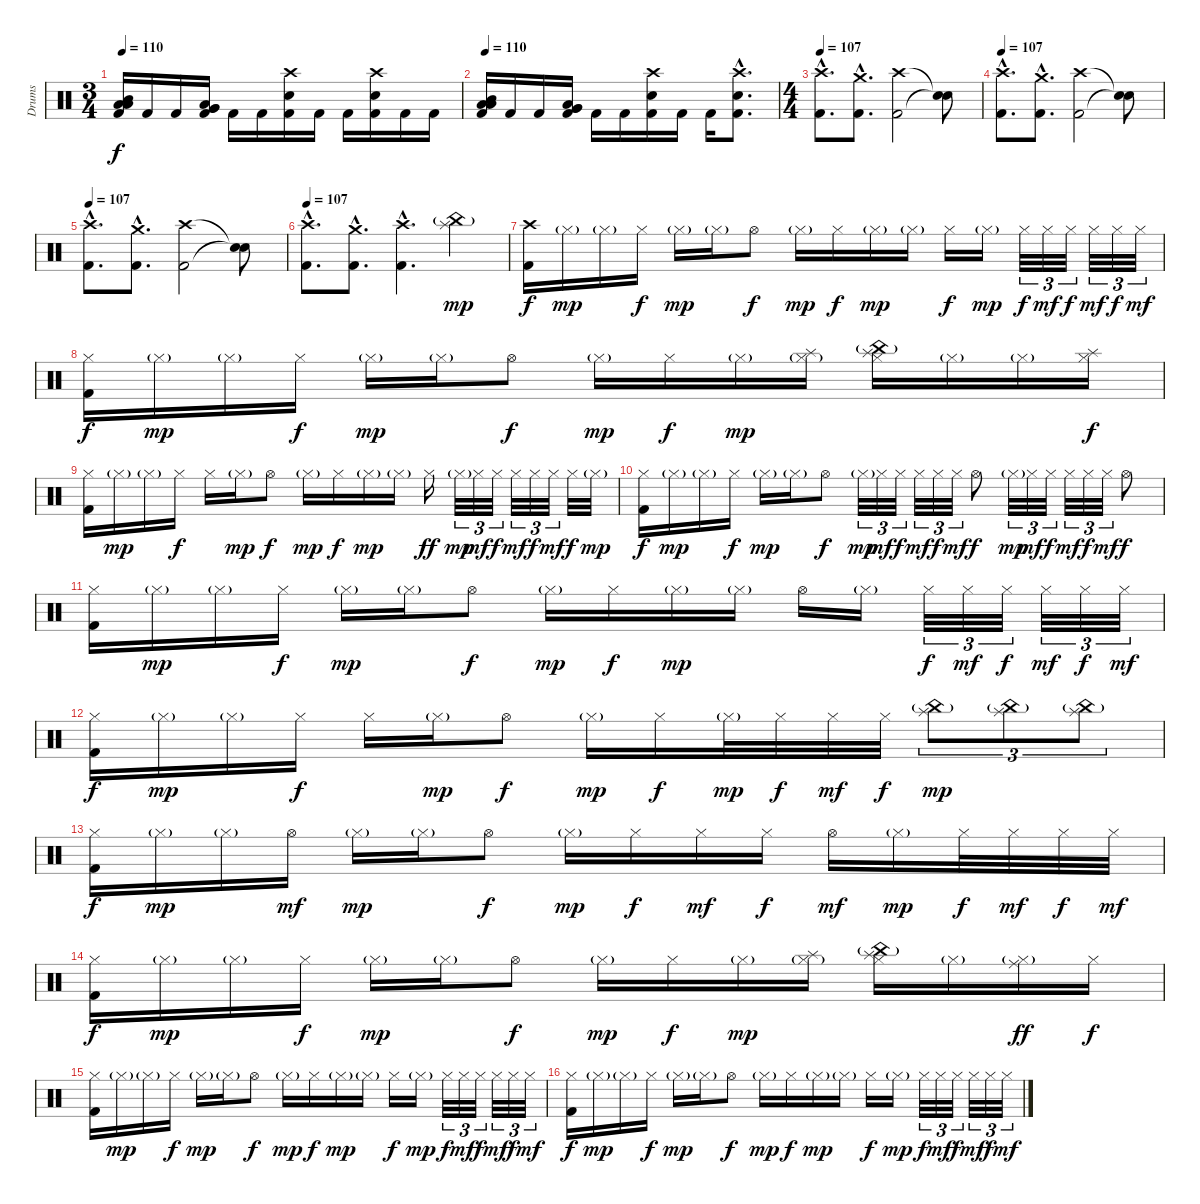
\track ("Drums" "Drums") {instrument percussion}
\staff {score}
\articulation defaults
\ts (3 4)
\tempo 110
\clef neutral
\ks c
("Kick (hit) 2" "Mid Tom (hit)" "Low Tom (hit)" "Low Tom (hit)").16{dy f} "Kick (hit) 2".16 "Kick (hit) 2".16 ("Kick (hit) 2" "Low Tom (hit)" "Very Low Tom (hit)" "Very Low Tom (hit)").16 "Kick (hit) 2".16 "Kick (hit) 2".16 ("Kick (hit) 2" "Electric Snare (hit)" "Crash high (hit)").16 "Kick (hit) 2".16 "Kick (hit) 2".16 ("Kick (hit) 2" "Electric Snare (hit)" "Crash high (hit)").16 "Kick (hit) 2".16 "Kick (hit) 2".16 |
\tempo 110
("Kick (hit) 2" "Mid Tom (hit)" "Low Tom (hit)" "Low Tom (hit)").16 "Kick (hit) 2".16 "Kick (hit) 2".16 ("Kick (hit) 2" "Low Tom (hit)" "Very Low Tom (hit)" "Very Low Tom (hit)").16 "Kick (hit) 2".16 "Kick (hit) 2".16 ("Kick (hit) 2" "Electric Snare (hit)" "Crash high (hit)").16 "Kick (hit) 2".16 "Kick (hit) 2".16 ("Kick (hit) 2"{hac} "Electric Snare (hit)"{hac} "Crash high (hit)"{hac}).8{d} |
\ts (4 4)
\tempo 107
("Kick (hit) 2"{hac} "Crash high (hit)"{hac}).8{d} ("Kick (hit) 2"{hac} "Crash medium (hit)"{hac}).8{d} ("Kick (hit) 2" "Crash high (hit)").2 ("Snare (hit)"{t} "Snare (hit)"{t}).8 |
\tempo 107
("Kick (hit) 2"{hac} "Crash high (hit)"{hac}).8{d} ("Kick (hit) 2"{hac} "Crash medium (hit)"{hac}).8{d} ("Kick (hit) 2" "Crash high (hit)").2 ("Snare (hit)"{t} "Snare (hit)"{t}).8 |
\tempo 107
("Kick (hit) 2"{hac} "Crash high (hit)"{hac}).8{d} ("Kick (hit) 2"{hac} "Crash medium (hit)"{hac}).8{d} ("Kick (hit) 2" "Crash high (hit)").2 ("Snare (hit)"{t} "Snare (hit)"{t}).8 |
\tempo 107
("Kick (hit) 2"{hac} "Crash high (hit)"{hac}).8{d} ("Kick (hit) 2"{hac} "Crash medium (hit)"{hac}).8{d} ("Kick (hit) 2"{hac} "Crash high (hit)"{hac}).4{d} ("Splash (hit)" "China (hit)"{g}).4{dy mp} |
("Kick (hit) 2" "Crash high (hit)").16{dy f} "Hi-Hat (closed)"{g}.16{dy mp} "Hi-Hat (closed)"{g}.16 "Hi-Hat (closed)".16{dy f} "Hi-Hat (closed)"{g}.16{dy mp} "Hi-Hat (closed)"{g}.16 "Hi-Hat (open)".8{dy f} "Hi-Hat (closed)"{g}.16{dy mp} "Hi-Hat (closed)".16{dy f} "Hi-Hat (closed)"{g}.16{dy mp} "Hi-Hat (closed)"{g}.16 "Hi-Hat (closed)".16{dy f} "Hi-Hat (closed)"{g}.16{dy mp} "Hi-Hat (closed)".32{tu (3 2) dy f} "Hi-Hat (closed)".32{tu (3 2) dy mf} "Hi-Hat (closed)".32{tu (3 2) dy f} "Hi-Hat (closed)".32{tu (3 2) dy mf} "Hi-Hat (closed)".32{tu (3 2) dy f} "Hi-Hat (closed)".32{tu (3 2) dy mf} |
("Kick (hit) 2" "Hi-Hat (closed)").16{dy f} "Hi-Hat (closed)"{g}.16{dy mp} "Hi-Hat (closed)"{g}.16 "Hi-Hat (closed)".16{dy f} "Hi-Hat (closed)"{g}.16{dy mp} "Hi-Hat (closed)"{g}.16 "Hi-Hat (open)".8{dy f} "Hi-Hat (closed)"{g}.16{dy mp} "Hi-Hat (closed)".16{dy f} "Hi-Hat (closed)"{g}.16{dy mp} ("Hi-Hat (closed)"{g} "Splash (hit)").16 ("Hi-Hat (closed)" "Splash (hit)" "China (hit)"{g}).16 "Hi-Hat (closed)"{g}.16 "Hi-Hat (closed)"{g}.16 ("Hi-Hat (closed)" "Splash (hit)").16{dy f} |
("Kick (hit) 2" "Hi-Hat (closed)").16 "Hi-Hat (closed)"{g}.16{dy mp} "Hi-Hat (closed)"{g}.16 "Hi-Hat (closed)".16{dy f} "Hi-Hat (closed)".16 "Hi-Hat (closed)"{g}.16{dy mp} "Hi-Hat (open)".8{dy f} "Hi-Hat (closed)"{g}.16{dy mp} "Hi-Hat (closed)".16{dy f} "Hi-Hat (closed)"{g}.16{dy mp} "Hi-Hat (closed)"{g}.16 "Hi-Hat (closed)".16{dy ff} "Hi-Hat (closed)"{g}.32{tu (3 2) dy mp} "Hi-Hat (closed)".32{tu (3 2) dy mf} "Hi-Hat (closed)".32{tu (3 2) dy f} "Hi-Hat (closed)".32{tu (3 2) dy mf} "Hi-Hat (closed)".32{tu (3 2) dy f} "Hi-Hat (closed)".32{tu (3 2) dy mf} "Hi-Hat (closed)".32{dy f} "Hi-Hat (closed)"{g}.32{dy mp} |
("Kick (hit) 2" "Hi-Hat (closed)").16{dy f} "Hi-Hat (closed)"{g}.16{dy mp} "Hi-Hat (closed)"{g}.16 "Hi-Hat (closed)".16{dy f} "Hi-Hat (closed)"{g}.16{dy mp} "Hi-Hat (closed)"{g}.16 "Hi-Hat (open)".8{dy f} "Hi-Hat (closed)"{g}.32{tu (3 2) dy mp} "Hi-Hat (closed)".32{tu (3 2) dy mf} "Hi-Hat (closed)".32{tu (3 2) dy f} "Hi-Hat (closed)".32{tu (3 2) dy mf} "Hi-Hat (closed)".32{tu (3 2) dy f} "Hi-Hat (closed)".32{tu (3 2) dy mf} "Hi-Hat (open)".8{dy f} "Hi-Hat (closed)"{g}.32{tu (3 2) dy mp} "Hi-Hat (closed)".32{tu (3 2) dy mf} "Hi-Hat (closed)".32{tu (3 2) dy f} "Hi-Hat (closed)".32{tu (3 2) dy mf} "Hi-Hat (closed)".32{tu (3 2) dy f} "Hi-Hat (closed)".32{tu (3 2) dy mf} "Hi-Hat (open)".8{dy f} |
("Kick (hit) 2" "Hi-Hat (closed)").16 "Hi-Hat (closed)"{g}.16{dy mp} "Hi-Hat (closed)"{g}.16 "Hi-Hat (closed)".16{dy f} "Hi-Hat (closed)"{g}.16{dy mp} "Hi-Hat (closed)"{g}.16 "Hi-Hat (open)".8{dy f} "Hi-Hat (closed)"{g}.16{dy mp} "Hi-Hat (closed)".16{dy f} "Hi-Hat (closed)"{g}.16{dy mp} "Hi-Hat (closed)"{g}.16 "Hi-Hat (open)".16 "Hi-Hat (closed)"{g}.16 "Hi-Hat (closed)".32{tu (3 2) dy f} "Hi-Hat (closed)".32{tu (3 2) dy mf} "Hi-Hat (closed)".32{tu (3 2) dy f} "Hi-Hat (closed)".32{tu (3 2) dy mf} "Hi-Hat (closed)".32{tu (3 2) dy f} "Hi-Hat (closed)".32{tu (3 2) dy mf} |
("Kick (hit) 2" "Hi-Hat (closed)").16{dy f} "Hi-Hat (closed)"{g}.16{dy mp} "Hi-Hat (closed)"{g}.16 "Hi-Hat (closed)".16{dy f} "Hi-Hat (closed)".16 "Hi-Hat (closed)"{g}.16{dy mp} "Hi-Hat (open)".8{dy f} "Hi-Hat (closed)"{g}.16{dy mp} "Hi-Hat (closed)".16{dy f} "Hi-Hat (closed)"{g}.32{dy mp} "Hi-Hat (closed)".32{dy f} "Hi-Hat (closed)".32{dy mf} "Hi-Hat (closed)".32{dy f} ("Splash (hit)" "China (hit)"{g}).8{tu (3 2) dy mp} ("Splash (hit)" "China (hit)"{g}).8{tu (3 2)} ("Splash (hit)" "China (hit)"{g}).8{tu (3 2)} |
("Kick (hit) 2" "Hi-Hat (closed)").16{dy f} "Hi-Hat (closed)"{g}.16{dy mp} "Hi-Hat (closed)"{g}.16 "Hi-Hat (open)".16{dy mf} "Hi-Hat (closed)"{g}.16{dy mp} "Hi-Hat (closed)"{g}.16 "Hi-Hat (open)".8{dy f} "Hi-Hat (closed)"{g}.16{dy mp} "Hi-Hat (closed)".16{dy f} "Hi-Hat (closed)".16{dy mf} "Hi-Hat (closed)".16{dy f} "Hi-Hat (open)".16{dy mf} "Hi-Hat (closed)"{g}.16{dy mp} "Hi-Hat (closed)".32{dy f} "Hi-Hat (closed)".32{dy mf} "Hi-Hat (closed)".32{dy f} "Hi-Hat (closed)".32{dy mf} |
("Kick (hit) 2" "Hi-Hat (closed)").16{dy f} "Hi-Hat (closed)"{g}.16{dy mp} "Hi-Hat (closed)"{g}.16 "Hi-Hat (closed)".16{dy f} "Hi-Hat (closed)"{g}.16{dy mp} "Hi-Hat (closed)"{g}.16 "Hi-Hat (open)".8{dy f} "Hi-Hat (closed)"{g}.16{dy mp} "Hi-Hat (closed)".16{dy f} "Hi-Hat (closed)"{g}.16{dy mp} ("Hi-Hat (closed)"{g} "Splash (hit)").16 ("Hi-Hat (closed)" "Splash (hit)" "China (hit)"{g}).16 "Hi-Hat (closed)"{g}.16 ("Hi-Hat (closed)"{g} "Ride (middle)").16{dy ff} "Hi-Hat (closed)".16{dy f} |
("Kick (hit) 2" "Hi-Hat (closed)").16 "Hi-Hat (closed)"{g}.16{dy mp} "Hi-Hat (closed)"{g}.16 "Hi-Hat (closed)".16{dy f} "Hi-Hat (closed)"{g}.16{dy mp} "Hi-Hat (closed)"{g}.16 "Hi-Hat (open)".8{dy f} "Hi-Hat (closed)"{g}.16{dy mp} "Hi-Hat (closed)".16{dy f} "Hi-Hat (closed)"{g}.16{dy mp} "Hi-Hat (closed)"{g}.16 "Hi-Hat (closed)".16{dy f} "Hi-Hat (closed)"{g}.16{dy mp} "Hi-Hat (closed)".32{tu (3 2) dy f} "Hi-Hat (closed)".32{tu (3 2) dy mf} "Hi-Hat (closed)".32{tu (3 2) dy f} "Hi-Hat (closed)".32{tu (3 2) dy mf} "Hi-Hat (closed)".32{tu (3 2) dy f} "Hi-Hat (closed)".32{tu (3 2) dy mf} |
("Kick (hit) 2" "Hi-Hat (closed)").16{dy f} "Hi-Hat (closed)"{g}.16{dy mp} "Hi-Hat (closed)"{g}.16 "Hi-Hat (closed)".16{dy f} "Hi-Hat (closed)"{g}.16{dy mp} "Hi-Hat (closed)"{g}.16 "Hi-Hat (open)".8{dy f} "Hi-Hat (closed)"{g}.16{dy mp} "Hi-Hat (closed)".16{dy f} "Hi-Hat (closed)"{g}.16{dy mp} "Hi-Hat (closed)"{g}.16 "Hi-Hat (closed)".16{dy f} "Hi-Hat (closed)"{g}.16{dy mp} "Hi-Hat (closed)".32{tu (3 2) dy f} "Hi-Hat (closed)".32{tu (3 2) dy mf} "Hi-Hat (closed)".32{tu (3 2) dy f} "Hi-Hat (closed)".32{tu (3 2) dy mf} "Hi-Hat (closed)".32{tu (3 2) dy f} "Hi-Hat (closed)".32{tu (3 2) dy mf}
